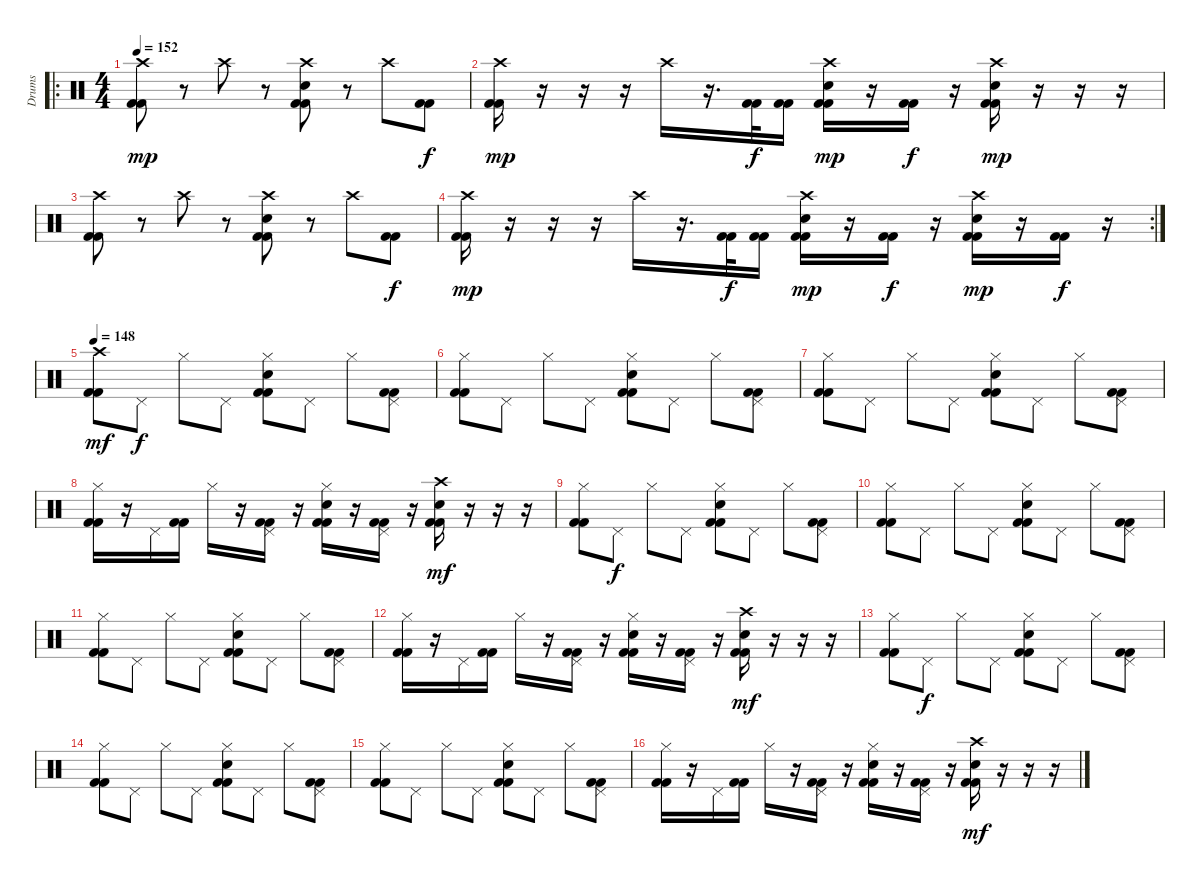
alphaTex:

\track ("Drums" "Drums") {instrument percussion}
\staff {score}
\articulation defaults
\ro
\ts (4 4)
\tempo 152
\clef neutral
\ks c
("Crash high (hit)" "Kick (hit) 2" "Kick (hit) 2").8{dy mp} r.8 "Crash high (hit)".8 r.8 ("Crash high (hit)" "Snare (hit) 2" "Kick (hit) 2" "Kick (hit) 2").8 r.8 "Crash high (hit)".8 ("Kick (hit) 2" "Kick (hit) 2").8{dy f} |
("Crash high (hit)" "Kick (hit) 2" "Kick (hit) 2").16{dy mp} r.16 r.16 r.16 "Crash high (hit)".16 r.16{d} ("Kick (hit) 2" "Kick (hit) 2").32{dy f} ("Kick (hit) 2" "Kick (hit) 2").16 ("Crash high (hit)" "Snare (hit) 2" "Kick (hit) 2" "Kick (hit) 2").16{dy mp} r.16 ("Kick (hit) 2" "Kick (hit) 2").16{dy f} r.16 ("Crash high (hit)" "Snare (hit) 2" "Kick (hit) 2" "Kick (hit) 2").16{dy mp} r.16 r.16 r.16 |
("Crash high (hit)" "Kick (hit) 2" "Kick (hit) 2").8 r.8 "Crash high (hit)".8 r.8 ("Crash high (hit)" "Snare (hit) 2" "Kick (hit) 2" "Kick (hit) 2").8 r.8 "Crash high (hit)".8 ("Kick (hit) 2" "Kick (hit) 2").8{dy f} |
\rc 2
("Crash high (hit)" "Kick (hit) 2" "Kick (hit) 2").16{dy mp} r.16 r.16 r.16 "Crash high (hit)".16 r.16{d} ("Kick (hit) 2" "Kick (hit) 2").32{dy f} ("Kick (hit) 2" "Kick (hit) 2").16 ("Crash high (hit)" "Snare (hit) 2" "Kick (hit) 2" "Kick (hit) 2").16{dy mp} r.16 ("Kick (hit) 2" "Kick (hit) 2").16{dy f} r.16 ("Crash high (hit)" "Snare (hit) 2" "Kick (hit) 2" "Kick (hit) 2").16{dy mp} r.16 ("Kick (hit) 2" "Kick (hit) 2").16{dy f} r.16 |
\tempo 148
("Crash high (hit)" "Kick (hit) 2" "Kick (hit) 2").8{dy mf} "Pedal Hi-Hat (hit)".8{dy f} "Hi-Hat (closed)".8 "Pedal Hi-Hat (hit)".8 ("Hi-Hat (closed)" "Snare (hit) 2" "Kick (hit) 2" "Kick (hit) 2").8 "Pedal Hi-Hat (hit)".8 "Hi-Hat (closed)".8 ("Pedal Hi-Hat (hit)" "Kick (hit) 2" "Kick (hit) 2").8 |
("Hi-Hat (closed)" "Kick (hit) 2" "Kick (hit) 2").8 "Pedal Hi-Hat (hit)".8 "Hi-Hat (closed)".8 "Pedal Hi-Hat (hit)".8 ("Hi-Hat (closed)" "Snare (hit) 2" "Kick (hit) 2" "Kick (hit) 2").8 "Pedal Hi-Hat (hit)".8 "Hi-Hat (closed)".8 ("Pedal Hi-Hat (hit)" "Kick (hit) 2" "Kick (hit) 2").8 |
("Hi-Hat (closed)" "Kick (hit) 2" "Kick (hit) 2").8 "Pedal Hi-Hat (hit)".8 "Hi-Hat (closed)".8 "Pedal Hi-Hat (hit)".8 ("Hi-Hat (closed)" "Snare (hit) 2" "Kick (hit) 2" "Kick (hit) 2").8 "Pedal Hi-Hat (hit)".8 "Hi-Hat (closed)".8 ("Pedal Hi-Hat (hit)" "Kick (hit) 2" "Kick (hit) 2").8 |
("Hi-Hat (closed)" "Kick (hit) 2" "Kick (hit) 2").16 r.16 "Pedal Hi-Hat (hit)".16 ("Kick (hit) 2" "Kick (hit) 2").16 "Hi-Hat (closed)".16 r.16 ("Pedal Hi-Hat (hit)" "Kick (hit) 2" "Kick (hit) 2").16 r.16 ("Hi-Hat (closed)" "Snare (hit) 2" "Kick (hit) 2" "Kick (hit) 2").16 r.16 ("Pedal Hi-Hat (hit)" "Kick (hit) 2" "Kick (hit) 2").16 r.16 ("Crash high (hit)" "Snare (hit) 2" "Kick (hit) 2" "Kick (hit) 2").16{dy mf} r.16 r.16 r.16 |
("Hi-Hat (closed)" "Kick (hit) 2" "Kick (hit) 2").8 "Pedal Hi-Hat (hit)".8{dy f} "Hi-Hat (closed)".8 "Pedal Hi-Hat (hit)".8 ("Hi-Hat (closed)" "Snare (hit) 2" "Kick (hit) 2" "Kick (hit) 2").8 "Pedal Hi-Hat (hit)".8 "Hi-Hat (closed)".8 ("Pedal Hi-Hat (hit)" "Kick (hit) 2" "Kick (hit) 2").8 |
("Hi-Hat (closed)" "Kick (hit) 2" "Kick (hit) 2").8 "Pedal Hi-Hat (hit)".8 "Hi-Hat (closed)".8 "Pedal Hi-Hat (hit)".8 ("Hi-Hat (closed)" "Snare (hit) 2" "Kick (hit) 2" "Kick (hit) 2").8 "Pedal Hi-Hat (hit)".8 "Hi-Hat (closed)".8 ("Pedal Hi-Hat (hit)" "Kick (hit) 2" "Kick (hit) 2").8 |
("Hi-Hat (closed)" "Kick (hit) 2" "Kick (hit) 2").8 "Pedal Hi-Hat (hit)".8 "Hi-Hat (closed)".8 "Pedal Hi-Hat (hit)".8 ("Hi-Hat (closed)" "Snare (hit) 2" "Kick (hit) 2" "Kick (hit) 2").8 "Pedal Hi-Hat (hit)".8 "Hi-Hat (closed)".8 ("Pedal Hi-Hat (hit)" "Kick (hit) 2" "Kick (hit) 2").8 |
("Hi-Hat (closed)" "Kick (hit) 2" "Kick (hit) 2").16 r.16 "Pedal Hi-Hat (hit)".16 ("Kick (hit) 2" "Kick (hit) 2").16 "Hi-Hat (closed)".16 r.16 ("Pedal Hi-Hat (hit)" "Kick (hit) 2" "Kick (hit) 2").16 r.16 ("Hi-Hat (closed)" "Snare (hit) 2" "Kick (hit) 2" "Kick (hit) 2").16 r.16 ("Pedal Hi-Hat (hit)" "Kick (hit) 2" "Kick (hit) 2").16 r.16 ("Crash high (hit)" "Snare (hit) 2" "Kick (hit) 2" "Kick (hit) 2").16{dy mf} r.16 r.16 r.16 |
("Hi-Hat (closed)" "Kick (hit) 2" "Kick (hit) 2").8 "Pedal Hi-Hat (hit)".8{dy f} "Hi-Hat (closed)".8 "Pedal Hi-Hat (hit)".8 ("Hi-Hat (closed)" "Snare (hit) 2" "Kick (hit) 2" "Kick (hit) 2").8 "Pedal Hi-Hat (hit)".8 "Hi-Hat (closed)".8 ("Pedal Hi-Hat (hit)" "Kick (hit) 2" "Kick (hit) 2").8 |
("Hi-Hat (closed)" "Kick (hit) 2" "Kick (hit) 2").8 "Pedal Hi-Hat (hit)".8 "Hi-Hat (closed)".8 "Pedal Hi-Hat (hit)".8 ("Hi-Hat (closed)" "Snare (hit) 2" "Kick (hit) 2" "Kick (hit) 2").8 "Pedal Hi-Hat (hit)".8 "Hi-Hat (closed)".8 ("Pedal Hi-Hat (hit)" "Kick (hit) 2" "Kick (hit) 2").8 |
("Hi-Hat (closed)" "Kick (hit) 2" "Kick (hit) 2").8 "Pedal Hi-Hat (hit)".8 "Hi-Hat (closed)".8 "Pedal Hi-Hat (hit)".8 ("Hi-Hat (closed)" "Snare (hit) 2" "Kick (hit) 2" "Kick (hit) 2").8 "Pedal Hi-Hat (hit)".8 "Hi-Hat (closed)".8 ("Pedal Hi-Hat (hit)" "Kick (hit) 2" "Kick (hit) 2").8 |
("Hi-Hat (closed)" "Kick (hit) 2" "Kick (hit) 2").16 r.16 "Pedal Hi-Hat (hit)".16 ("Kick (hit) 2" "Kick (hit) 2").16 "Hi-Hat (closed)".16 r.16 ("Pedal Hi-Hat (hit)" "Kick (hit) 2" "Kick (hit) 2").16 r.16 ("Hi-Hat (closed)" "Snare (hit) 2" "Kick (hit) 2" "Kick (hit) 2").16 r.16 ("Pedal Hi-Hat (hit)" "Kick (hit) 2" "Kick (hit) 2").16 r.16 ("Crash high (hit)" "Snare (hit) 2" "Kick (hit) 2" "Kick (hit) 2").16{dy mf} r.16 r.16 r.16
